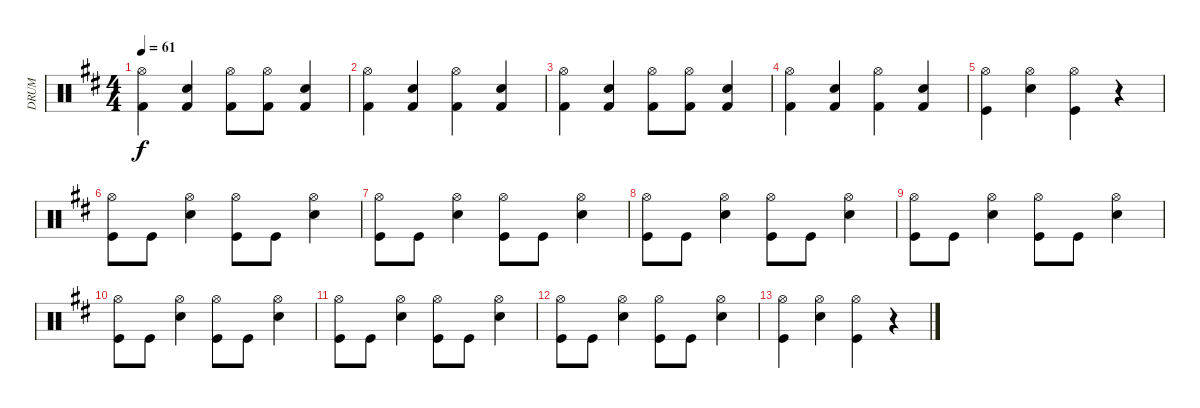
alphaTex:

\track ("DRUM" "DRUM") {instrument percussion}
\staff {score}
\articulation defaults
\ts (4 4)
\tempo 61
\clef neutral
\ks d
("Hi-Hat (open)" "Kick (hit) 2").4{dy f} ("Electric Snare (hit)" "Kick (hit) 2").4 ("Hi-Hat (open)" "Kick (hit) 2").8 ("Hi-Hat (open)" "Kick (hit) 2").8 ("Snare (hit) 2" "Kick (hit) 2").4 |
("Hi-Hat (open)" "Kick (hit) 2").4 ("Electric Snare (hit)" "Kick (hit) 2").4 ("Hi-Hat (open)" "Kick (hit) 2").4 ("Snare (hit) 2" "Kick (hit) 2").4 |
("Hi-Hat (open)" "Kick (hit) 2").4 ("Electric Snare (hit)" "Kick (hit) 2").4 ("Hi-Hat (open)" "Kick (hit) 2").8 ("Hi-Hat (open)" "Kick (hit) 2").8 ("Snare (hit) 2" "Kick (hit) 2").4 |
("Hi-Hat (open)" "Kick (hit) 2").4 ("Electric Snare (hit)" "Kick (hit) 2").4 ("Hi-Hat (open)" "Kick (hit) 2").4 ("Snare (hit) 2" "Kick (hit) 2").4 |
("Hi-Hat (open)" "Kick (hit)").4 ("Hi-Hat (open)" "Electric Snare (hit)").4 ("Hi-Hat (open)" "Kick (hit)").4 r.4 |
("Hi-Hat (open)" "Kick (hit)").8 "Kick (hit)".8 ("Hi-Hat (open)" "Electric Snare (hit)").4 ("Hi-Hat (open)" "Kick (hit)").8 "Kick (hit)".8 ("Hi-Hat (open)" "Electric Snare (hit)").4 |
("Hi-Hat (open)" "Kick (hit)").8 "Kick (hit)".8 ("Hi-Hat (open)" "Electric Snare (hit)").4 ("Hi-Hat (open)" "Kick (hit)").8 "Kick (hit)".8 ("Hi-Hat (open)" "Electric Snare (hit)").4 |
("Hi-Hat (open)" "Kick (hit)").8 "Kick (hit)".8 ("Hi-Hat (open)" "Electric Snare (hit)").4 ("Hi-Hat (open)" "Kick (hit)").8 "Kick (hit)".8 ("Hi-Hat (open)" "Electric Snare (hit)").4 |
("Hi-Hat (open)" "Kick (hit)").8 "Kick (hit)".8 ("Hi-Hat (open)" "Electric Snare (hit)").4 ("Hi-Hat (open)" "Kick (hit)").8 "Kick (hit)".8 ("Hi-Hat (open)" "Electric Snare (hit)").4 |
("Hi-Hat (open)" "Kick (hit)").8 "Kick (hit)".8 ("Hi-Hat (open)" "Electric Snare (hit)").4 ("Hi-Hat (open)" "Kick (hit)").8 "Kick (hit)".8 ("Hi-Hat (open)" "Electric Snare (hit)").4 |
("Hi-Hat (open)" "Kick (hit)").8 "Kick (hit)".8 ("Hi-Hat (open)" "Electric Snare (hit)").4 ("Hi-Hat (open)" "Kick (hit)").8 "Kick (hit)".8 ("Hi-Hat (open)" "Electric Snare (hit)").4 |
("Hi-Hat (open)" "Kick (hit)").8 "Kick (hit)".8 ("Hi-Hat (open)" "Electric Snare (hit)").4 ("Hi-Hat (open)" "Kick (hit)").8 "Kick (hit)".8 ("Hi-Hat (open)" "Electric Snare (hit)").4 |
("Hi-Hat (open)" "Kick (hit)").4 ("Hi-Hat (open)" "Electric Snare (hit)").4 ("Hi-Hat (open)" "Kick (hit)").4 r.4
